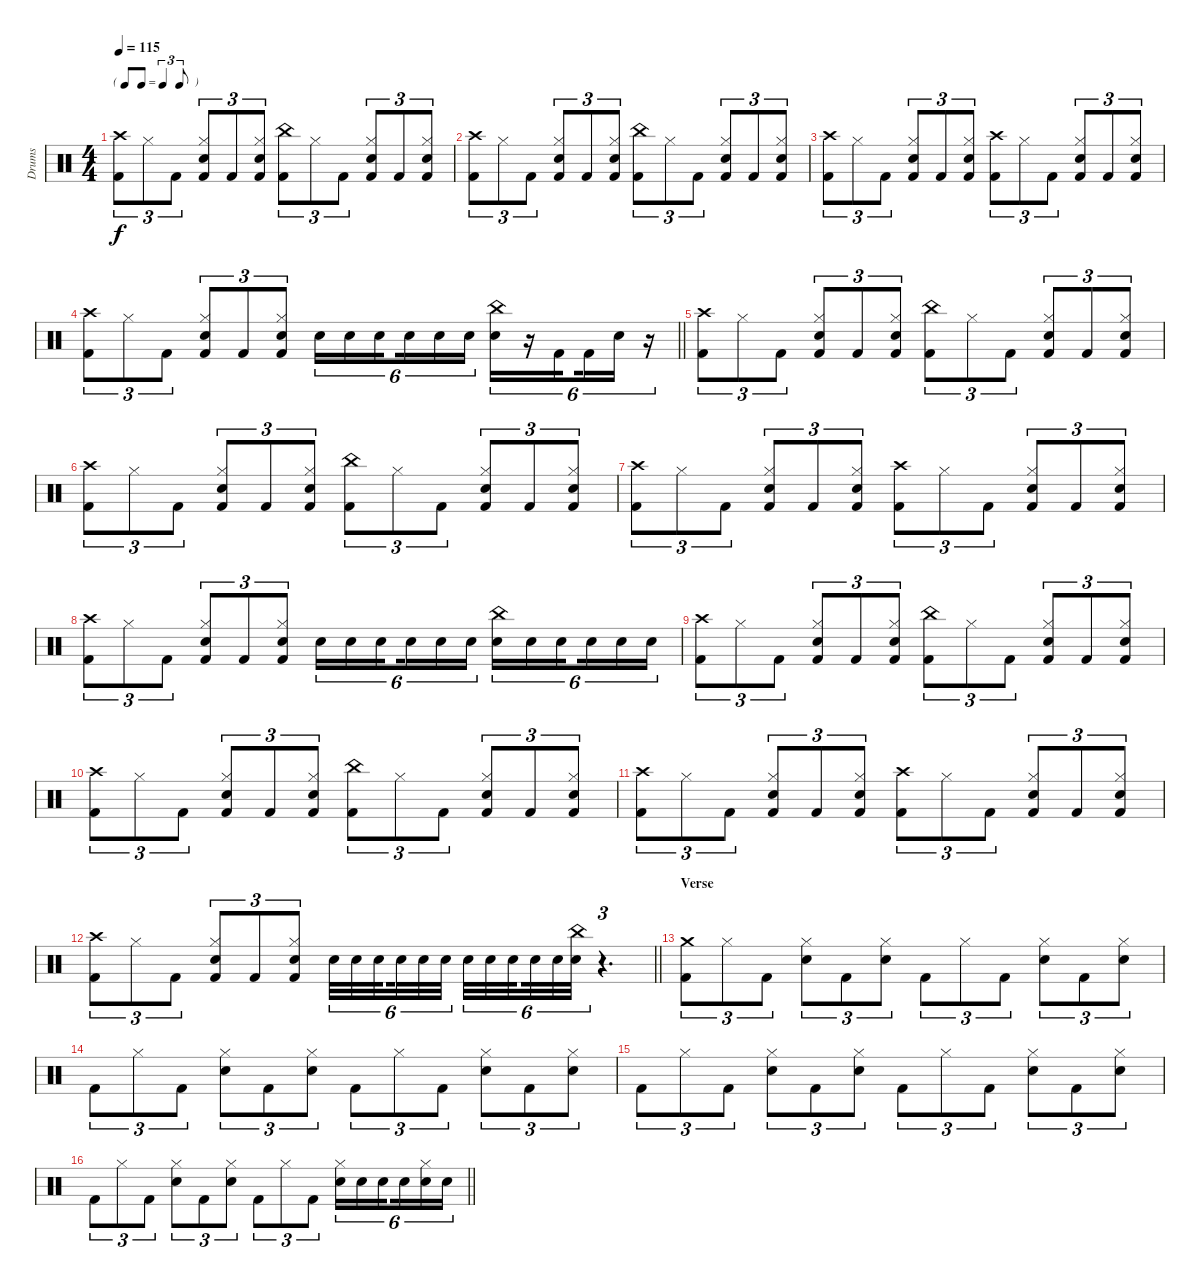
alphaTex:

\track ("Drums" "Drums") {instrument percussion}
\staff {score}
\articulation defaults
\ts (4 4)
\tf triplet8th
\tempo 115
\clef neutral
\ks c
("Crash high (hit)" "Kick (hit) 2").8{tu (3 2) dy f} "Hi-Hat (closed)".8{tu (3 2)} "Kick (hit) 2".8{tu (3 2)} ("Hi-Hat (closed)" "Snare (hit) 2" "Kick (hit) 2").8{tu (3 2)} "Kick (hit) 2".8{tu (3 2)} ("Hi-Hat (closed)" "Snare (hit) 2" "Kick (hit) 2").8{tu (3 2)} ("China (hit)" "Kick (hit) 2").8{tu (3 2)} "Hi-Hat (closed)".8{tu (3 2)} "Kick (hit) 2".8{tu (3 2)} ("Hi-Hat (closed)" "Snare (hit) 2" "Kick (hit) 2").8{tu (3 2)} "Kick (hit) 2".8{tu (3 2)} ("Hi-Hat (closed)" "Snare (hit) 2" "Kick (hit) 2").8{tu (3 2)} |
("Crash high (hit)" "Kick (hit) 2").8{tu (3 2)} "Hi-Hat (closed)".8{tu (3 2)} "Kick (hit) 2".8{tu (3 2)} ("Hi-Hat (closed)" "Snare (hit) 2" "Kick (hit) 2").8{tu (3 2)} "Kick (hit) 2".8{tu (3 2)} ("Hi-Hat (closed)" "Snare (hit) 2" "Kick (hit) 2").8{tu (3 2)} ("China (hit)" "Kick (hit) 2").8{tu (3 2)} "Hi-Hat (closed)".8{tu (3 2)} "Kick (hit) 2".8{tu (3 2)} ("Hi-Hat (closed)" "Snare (hit) 2" "Kick (hit) 2").8{tu (3 2)} "Kick (hit) 2".8{tu (3 2)} ("Hi-Hat (closed)" "Snare (hit) 2" "Kick (hit) 2").8{tu (3 2)} |
("Crash high (hit)" "Kick (hit) 2").8{tu (3 2)} "Hi-Hat (closed)".8{tu (3 2)} "Kick (hit) 2".8{tu (3 2)} ("Hi-Hat (closed)" "Snare (hit) 2" "Kick (hit) 2").8{tu (3 2)} "Kick (hit) 2".8{tu (3 2)} ("Hi-Hat (closed)" "Snare (hit) 2" "Kick (hit) 2").8{tu (3 2)} ("Crash high (hit)" "Kick (hit) 2").8{tu (3 2)} "Hi-Hat (closed)".8{tu (3 2)} "Kick (hit) 2".8{tu (3 2)} ("Hi-Hat (closed)" "Snare (hit) 2" "Kick (hit) 2").8{tu (3 2)} "Kick (hit) 2".8{tu (3 2)} ("Hi-Hat (closed)" "Snare (hit) 2" "Kick (hit) 2").8{tu (3 2)} |
\barLineRight lightlight
("Crash high (hit)" "Kick (hit) 2").8{tu (3 2)} "Hi-Hat (closed)".8{tu (3 2)} "Kick (hit) 2".8{tu (3 2)} ("Hi-Hat (closed)" "Snare (hit) 2" "Kick (hit) 2").8{tu (3 2)} "Kick (hit) 2".8{tu (3 2)} ("Hi-Hat (closed)" "Snare (hit) 2" "Kick (hit) 2").8{tu (3 2)} "Snare (hit) 2".16{tu (6 4)} "Snare (hit) 2".16{tu (6 4)} "Snare (hit) 2".16{tu (6 4) beam splitsecondary} "Snare (hit) 2".16{tu (6 4)} "Snare (hit) 2".16{tu (6 4)} "Snare (hit) 2".16{tu (6 4)} ("China (hit)" "Snare (hit) 2").16{tu (6 4)} r.16{tu (6 4)} "Kick (hit) 2".16{tu (6 4) beam splitsecondary} "Kick (hit) 2".16{tu (6 4)} "Snare (hit) 2".16{tu (6 4)} r.16{tu (6 4)} |
("Crash high (hit)" "Kick (hit) 2").8{tu (3 2)} "Hi-Hat (closed)".8{tu (3 2)} "Kick (hit) 2".8{tu (3 2)} ("Hi-Hat (closed)" "Snare (hit) 2" "Kick (hit) 2").8{tu (3 2)} "Kick (hit) 2".8{tu (3 2)} ("Hi-Hat (closed)" "Snare (hit) 2" "Kick (hit) 2").8{tu (3 2)} ("China (hit)" "Kick (hit) 2").8{tu (3 2)} "Hi-Hat (closed)".8{tu (3 2)} "Kick (hit) 2".8{tu (3 2)} ("Hi-Hat (closed)" "Snare (hit) 2" "Kick (hit) 2").8{tu (3 2)} "Kick (hit) 2".8{tu (3 2)} ("Hi-Hat (closed)" "Snare (hit) 2" "Kick (hit) 2").8{tu (3 2)} |
("Crash high (hit)" "Kick (hit) 2").8{tu (3 2)} "Hi-Hat (closed)".8{tu (3 2)} "Kick (hit) 2".8{tu (3 2)} ("Hi-Hat (closed)" "Snare (hit) 2" "Kick (hit) 2").8{tu (3 2)} "Kick (hit) 2".8{tu (3 2)} ("Hi-Hat (closed)" "Snare (hit) 2" "Kick (hit) 2").8{tu (3 2)} ("China (hit)" "Kick (hit) 2").8{tu (3 2)} "Hi-Hat (closed)".8{tu (3 2)} "Kick (hit) 2".8{tu (3 2)} ("Hi-Hat (closed)" "Snare (hit) 2" "Kick (hit) 2").8{tu (3 2)} "Kick (hit) 2".8{tu (3 2)} ("Hi-Hat (closed)" "Snare (hit) 2" "Kick (hit) 2").8{tu (3 2)} |
("Crash high (hit)" "Kick (hit) 2").8{tu (3 2)} "Hi-Hat (closed)".8{tu (3 2)} "Kick (hit) 2".8{tu (3 2)} ("Hi-Hat (closed)" "Snare (hit) 2" "Kick (hit) 2").8{tu (3 2)} "Kick (hit) 2".8{tu (3 2)} ("Hi-Hat (closed)" "Snare (hit) 2" "Kick (hit) 2").8{tu (3 2)} ("Crash high (hit)" "Kick (hit) 2").8{tu (3 2)} "Hi-Hat (closed)".8{tu (3 2)} "Kick (hit) 2".8{tu (3 2)} ("Hi-Hat (closed)" "Snare (hit) 2" "Kick (hit) 2").8{tu (3 2)} "Kick (hit) 2".8{tu (3 2)} ("Hi-Hat (closed)" "Snare (hit) 2" "Kick (hit) 2").8{tu (3 2)} |
("Crash high (hit)" "Kick (hit) 2").8{tu (3 2)} "Hi-Hat (closed)".8{tu (3 2)} "Kick (hit) 2".8{tu (3 2)} ("Hi-Hat (closed)" "Snare (hit) 2" "Kick (hit) 2").8{tu (3 2)} "Kick (hit) 2".8{tu (3 2)} ("Hi-Hat (closed)" "Snare (hit) 2" "Kick (hit) 2").8{tu (3 2)} "Snare (hit) 2".16{tu (6 4)} "Snare (hit) 2".16{tu (6 4)} "Snare (hit) 2".16{tu (6 4) beam splitsecondary} "Snare (hit) 2".16{tu (6 4)} "Snare (hit) 2".16{tu (6 4)} "Snare (hit) 2".16{tu (6 4)} ("China (hit)" "Snare (hit) 2").16{tu (6 4)} "Snare (hit) 2".16{tu (6 4)} "Snare (hit) 2".16{tu (6 4) beam splitsecondary} "Snare (hit) 2".16{tu (6 4)} "Snare (hit) 2".16{tu (6 4)} "Snare (hit) 2".16{tu (6 4)} |
("Crash high (hit)" "Kick (hit) 2").8{tu (3 2)} "Hi-Hat (closed)".8{tu (3 2)} "Kick (hit) 2".8{tu (3 2)} ("Hi-Hat (closed)" "Snare (hit) 2" "Kick (hit) 2").8{tu (3 2)} "Kick (hit) 2".8{tu (3 2)} ("Hi-Hat (closed)" "Snare (hit) 2" "Kick (hit) 2").8{tu (3 2)} ("China (hit)" "Kick (hit) 2").8{tu (3 2)} "Hi-Hat (closed)".8{tu (3 2)} "Kick (hit) 2".8{tu (3 2)} ("Hi-Hat (closed)" "Snare (hit) 2" "Kick (hit) 2").8{tu (3 2)} "Kick (hit) 2".8{tu (3 2)} ("Hi-Hat (closed)" "Snare (hit) 2" "Kick (hit) 2").8{tu (3 2)} |
("Crash high (hit)" "Kick (hit) 2").8{tu (3 2)} "Hi-Hat (closed)".8{tu (3 2)} "Kick (hit) 2".8{tu (3 2)} ("Hi-Hat (closed)" "Snare (hit) 2" "Kick (hit) 2").8{tu (3 2)} "Kick (hit) 2".8{tu (3 2)} ("Hi-Hat (closed)" "Snare (hit) 2" "Kick (hit) 2").8{tu (3 2)} ("China (hit)" "Kick (hit) 2").8{tu (3 2)} "Hi-Hat (closed)".8{tu (3 2)} "Kick (hit) 2".8{tu (3 2)} ("Hi-Hat (closed)" "Snare (hit) 2" "Kick (hit) 2").8{tu (3 2)} "Kick (hit) 2".8{tu (3 2)} ("Hi-Hat (closed)" "Snare (hit) 2" "Kick (hit) 2").8{tu (3 2)} |
("Crash high (hit)" "Kick (hit) 2").8{tu (3 2)} "Hi-Hat (closed)".8{tu (3 2)} "Kick (hit) 2".8{tu (3 2)} ("Hi-Hat (closed)" "Snare (hit) 2" "Kick (hit) 2").8{tu (3 2)} "Kick (hit) 2".8{tu (3 2)} ("Hi-Hat (closed)" "Snare (hit) 2" "Kick (hit) 2").8{tu (3 2)} ("Crash high (hit)" "Kick (hit) 2").8{tu (3 2)} "Hi-Hat (closed)".8{tu (3 2)} "Kick (hit) 2".8{tu (3 2)} ("Hi-Hat (closed)" "Snare (hit) 2" "Kick (hit) 2").8{tu (3 2)} "Kick (hit) 2".8{tu (3 2)} ("Hi-Hat (closed)" "Snare (hit) 2" "Kick (hit) 2").8{tu (3 2)} |
\barLineRight lightlight
("Crash high (hit)" "Kick (hit) 2").8{tu (3 2)} "Hi-Hat (closed)".8{tu (3 2)} "Kick (hit) 2".8{tu (3 2)} ("Hi-Hat (closed)" "Snare (hit) 2" "Kick (hit) 2").8{tu (3 2)} "Kick (hit) 2".8{tu (3 2)} ("Hi-Hat (closed)" "Snare (hit) 2" "Kick (hit) 2").8{tu (3 2)} "Snare (hit) 2".32{tu (6 4)} "Snare (hit) 2".32{tu (6 4)} "Snare (hit) 2".32{tu (6 4) beam splitsecondary} "Snare (hit) 2".32{tu (6 4)} "Snare (hit) 2".32{tu (6 4)} "Snare (hit) 2".32{tu (6 4) beam splitsecondary} "Snare (hit) 2".32{tu (6 4)} "Snare (hit) 2".32{tu (6 4)} "Snare (hit) 2".32{tu (6 4) beam splitsecondary} "Snare (hit) 2".32{tu (6 4)} "Snare (hit) 2".32{tu (6 4)} ("China (hit)" "Snare (hit) 2").32{tu (6 4)} r.4{d tu (3 2)} |
\section ("" "Verse")
("Crash medium (hit)" "Kick (hit) 2").8{tu (3 2)} "Hi-Hat (closed)".8{tu (3 2)} "Kick (hit) 2".8{tu (3 2)} ("Hi-Hat (closed)" "Snare (hit) 2").8{tu (3 2)} "Kick (hit) 2".8{tu (3 2)} ("Hi-Hat (closed)" "Snare (hit) 2").8{tu (3 2)} "Kick (hit) 2".8{tu (3 2)} "Hi-Hat (closed)".8{tu (3 2)} "Kick (hit) 2".8{tu (3 2)} ("Hi-Hat (closed)" "Snare (hit) 2").8{tu (3 2)} "Kick (hit) 2".8{tu (3 2)} ("Hi-Hat (closed)" "Snare (hit) 2").8{tu (3 2)} |
"Kick (hit) 2".8{tu (3 2)} "Hi-Hat (closed)".8{tu (3 2)} "Kick (hit) 2".8{tu (3 2)} ("Hi-Hat (closed)" "Snare (hit) 2").8{tu (3 2)} "Kick (hit) 2".8{tu (3 2)} ("Hi-Hat (closed)" "Snare (hit) 2").8{tu (3 2)} "Kick (hit) 2".8{tu (3 2)} "Hi-Hat (closed)".8{tu (3 2)} "Kick (hit) 2".8{tu (3 2)} ("Hi-Hat (closed)" "Snare (hit) 2").8{tu (3 2)} "Kick (hit) 2".8{tu (3 2)} ("Hi-Hat (closed)" "Snare (hit) 2").8{tu (3 2)} |
"Kick (hit) 2".8{tu (3 2)} "Hi-Hat (closed)".8{tu (3 2)} "Kick (hit) 2".8{tu (3 2)} ("Hi-Hat (closed)" "Snare (hit) 2").8{tu (3 2)} "Kick (hit) 2".8{tu (3 2)} ("Hi-Hat (closed)" "Snare (hit) 2").8{tu (3 2)} "Kick (hit) 2".8{tu (3 2)} "Hi-Hat (closed)".8{tu (3 2)} "Kick (hit) 2".8{tu (3 2)} ("Hi-Hat (closed)" "Snare (hit) 2").8{tu (3 2)} "Kick (hit) 2".8{tu (3 2)} ("Hi-Hat (closed)" "Snare (hit) 2").8{tu (3 2)} |
\barLineRight lightlight "Kick (hit) 2".8{tu (3 2)} "Hi-Hat (closed)".8{tu (3 2)} "Kick (hit) 2".8{tu (3 2)}
("Hi-Hat (closed)" "Snare (hit) 2").8{tu (3 2)} "Kick (hit) 2".8{tu (3 2)} ("Hi-Hat (closed)" "Snare (hit) 2").8{tu (3 2)} "Kick (hit) 2".8{tu (3 2)} "Hi-Hat (closed)".8{tu (3 2)} "Kick (hit) 2".8{tu (3 2)} ("Hi-Hat (closed)" "Snare (hit) 2").16{tu (6 4)} "Snare (hit) 2".16{tu (6 4)} "Snare (hit) 2".16{tu (6 4) beam splitsecondary} "Snare (hit) 2".16{tu (6 4)} ("Hi-Hat (closed)" "Snare (hit) 2").16{tu (6 4)} "Snare (hit) 2".16{tu (6 4)}
